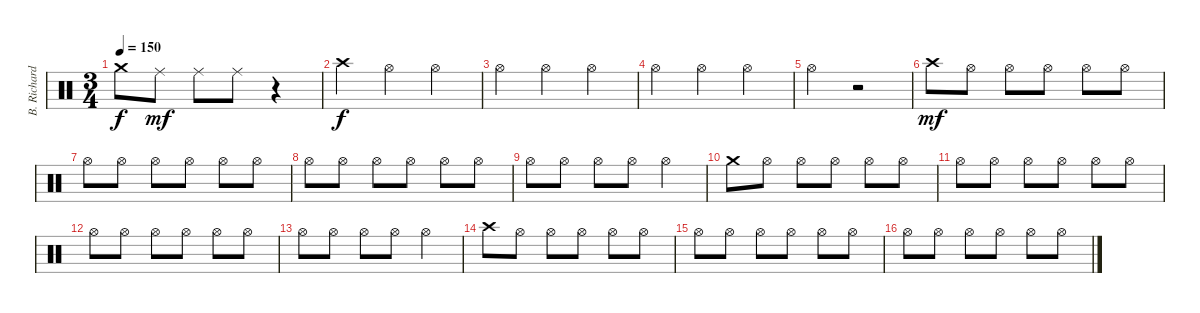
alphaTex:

\track ("B. Richardson Drums" "B. Richard") {instrument percussion}
\staff {score}
\articulation defaults
\ts (3 4)
\tempo 150
\clef neutral
\ks c "Crash medium (hit)".8{dy f} "Ride (middle)".8{dy mf} "Ride (middle)".8 "Ride (middle)".8
r.4 |
"Crash high (hit)".4{dy f} "Hi-Hat (open)".4 "Hi-Hat (open)".4 |
"Hi-Hat (open)".4 "Hi-Hat (open)".4 "Hi-Hat (open)".4 |
"Hi-Hat (open)".4 "Hi-Hat (open)".4 "Hi-Hat (open)".4 |
"Hi-Hat (open)".4 r.2 |
"Crash high (hit)".8{dy mf} "Hi-Hat (open)".8 "Hi-Hat (open)".8 "Hi-Hat (open)".8 "Hi-Hat (open)".8 "Hi-Hat (open)".8 |
"Hi-Hat (open)".8 "Hi-Hat (open)".8 "Hi-Hat (open)".8 "Hi-Hat (open)".8 "Hi-Hat (open)".8 "Hi-Hat (open)".8 |
"Hi-Hat (open)".8 "Hi-Hat (open)".8 "Hi-Hat (open)".8 "Hi-Hat (open)".8 "Hi-Hat (open)".8 "Hi-Hat (open)".8 |
"Hi-Hat (open)".8 "Hi-Hat (open)".8 "Hi-Hat (open)".8 "Hi-Hat (open)".8 "Hi-Hat (open)".4 |
"Crash medium (hit)".8 "Hi-Hat (open)".8 "Hi-Hat (open)".8 "Hi-Hat (open)".8 "Hi-Hat (open)".8 "Hi-Hat (open)".8 |
"Hi-Hat (open)".8 "Hi-Hat (open)".8 "Hi-Hat (open)".8 "Hi-Hat (open)".8 "Hi-Hat (open)".8 "Hi-Hat (open)".8 |
"Hi-Hat (open)".8 "Hi-Hat (open)".8 "Hi-Hat (open)".8 "Hi-Hat (open)".8 "Hi-Hat (open)".8 "Hi-Hat (open)".8 |
"Hi-Hat (open)".8 "Hi-Hat (open)".8 "Hi-Hat (open)".8 "Hi-Hat (open)".8 "Hi-Hat (open)".4 |
"Crash high (hit)".8 "Hi-Hat (open)".8 "Hi-Hat (open)".8 "Hi-Hat (open)".8 "Hi-Hat (open)".8 "Hi-Hat (open)".8 |
"Hi-Hat (open)".8 "Hi-Hat (open)".8 "Hi-Hat (open)".8 "Hi-Hat (open)".8 "Hi-Hat (open)".8 "Hi-Hat (open)".8 |
"Hi-Hat (open)".8 "Hi-Hat (open)".8 "Hi-Hat (open)".8 "Hi-Hat (open)".8 "Hi-Hat (open)".8 "Hi-Hat (open)".8
